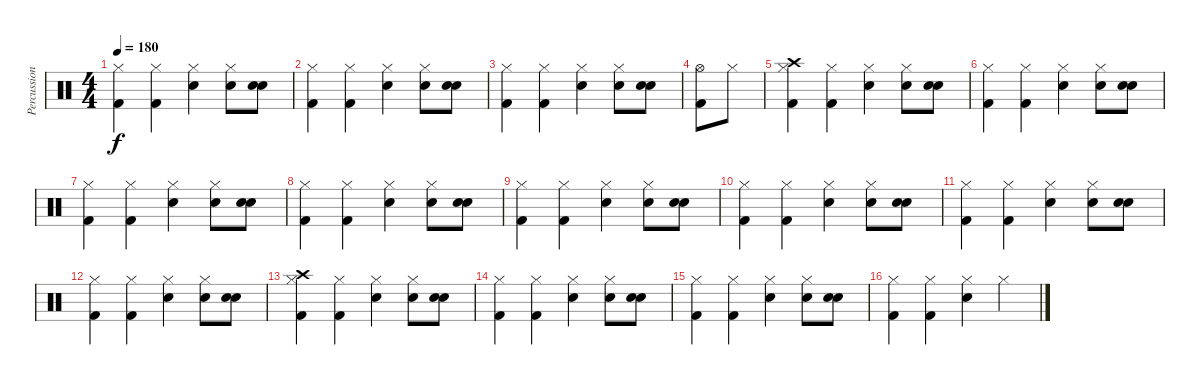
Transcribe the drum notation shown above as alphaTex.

\track ("Percussion" "Percussion") {instrument percussion}
\staff {score}
\articulation defaults
\ts (4 4)
\tempo 180
\clef neutral
\ks c
("Hi-Hat (closed)" "Kick (hit) 2").4{dy f} ("Hi-Hat (closed)" "Kick (hit) 2").4 ("Hi-Hat (closed)" "Electric Snare (hit)").4 ("Hi-Hat (closed)" "Snare (hit)").8 ("Snare (hit)" "Electric Snare (hit)").8 |
("Hi-Hat (closed)" "Kick (hit) 2").4 ("Hi-Hat (closed)" "Kick (hit) 2").4 ("Hi-Hat (closed)" "Electric Snare (hit)").4 ("Hi-Hat (closed)" "Snare (hit)").8 ("Snare (hit)" "Electric Snare (hit)").8 |
("Hi-Hat (closed)" "Kick (hit) 2").4 ("Hi-Hat (closed)" "Kick (hit) 2").4 ("Hi-Hat (closed)" "Electric Snare (hit)").4 ("Hi-Hat (closed)" "Snare (hit)").8 ("Snare (hit)" "Electric Snare (hit)").8 |
("Hi-Hat (open)" "Kick (hit) 2").8 "Hi-Hat (closed)".8 |
("Crash high (hit)" "Hi-Hat (closed)" "Kick (hit) 2").4 ("Hi-Hat (closed)" "Kick (hit) 2").4 ("Hi-Hat (closed)" "Electric Snare (hit)").4 ("Hi-Hat (closed)" "Snare (hit)").8 ("Snare (hit)" "Electric Snare (hit)").8 |
("Hi-Hat (closed)" "Kick (hit) 2").4 ("Hi-Hat (closed)" "Kick (hit) 2").4 ("Hi-Hat (closed)" "Electric Snare (hit)").4 ("Hi-Hat (closed)" "Snare (hit)").8 ("Snare (hit)" "Electric Snare (hit)").8 |
("Hi-Hat (closed)" "Kick (hit) 2").4 ("Hi-Hat (closed)" "Kick (hit) 2").4 ("Hi-Hat (closed)" "Electric Snare (hit)").4 ("Hi-Hat (closed)" "Snare (hit)").8 ("Snare (hit)" "Electric Snare (hit)").8 |
("Hi-Hat (closed)" "Kick (hit) 2").4 ("Hi-Hat (closed)" "Kick (hit) 2").4 ("Hi-Hat (closed)" "Electric Snare (hit)").4 ("Hi-Hat (closed)" "Snare (hit)").8 ("Snare (hit)" "Electric Snare (hit)").8 |
("Hi-Hat (closed)" "Kick (hit) 2").4 ("Hi-Hat (closed)" "Kick (hit) 2").4 ("Hi-Hat (closed)" "Electric Snare (hit)").4 ("Hi-Hat (closed)" "Snare (hit)").8 ("Snare (hit)" "Electric Snare (hit)").8 |
("Hi-Hat (closed)" "Kick (hit) 2").4 ("Hi-Hat (closed)" "Kick (hit) 2").4 ("Hi-Hat (closed)" "Electric Snare (hit)").4 ("Hi-Hat (closed)" "Snare (hit)").8 ("Snare (hit)" "Electric Snare (hit)").8 |
("Hi-Hat (closed)" "Kick (hit) 2").4 ("Hi-Hat (closed)" "Kick (hit) 2").4 ("Hi-Hat (closed)" "Electric Snare (hit)").4 ("Hi-Hat (closed)" "Snare (hit)").8 ("Snare (hit)" "Electric Snare (hit)").8 |
("Hi-Hat (closed)" "Kick (hit) 2").4 ("Hi-Hat (closed)" "Kick (hit) 2").4 ("Hi-Hat (closed)" "Electric Snare (hit)").4 ("Hi-Hat (closed)" "Snare (hit)").8 ("Snare (hit)" "Electric Snare (hit)").8 |
("Crash high (hit)" "Hi-Hat (closed)" "Kick (hit) 2").4 ("Hi-Hat (closed)" "Kick (hit) 2").4 ("Hi-Hat (closed)" "Electric Snare (hit)").4 ("Hi-Hat (closed)" "Snare (hit)").8 ("Snare (hit)" "Electric Snare (hit)").8 |
("Hi-Hat (closed)" "Kick (hit) 2").4 ("Hi-Hat (closed)" "Kick (hit) 2").4 ("Hi-Hat (closed)" "Electric Snare (hit)").4 ("Hi-Hat (closed)" "Snare (hit)").8 ("Snare (hit)" "Electric Snare (hit)").8 |
("Hi-Hat (closed)" "Kick (hit) 2").4 ("Hi-Hat (closed)" "Kick (hit) 2").4 ("Hi-Hat (closed)" "Electric Snare (hit)").4 ("Hi-Hat (closed)" "Snare (hit)").8 ("Snare (hit)" "Electric Snare (hit)").8 |
("Hi-Hat (closed)" "Kick (hit) 2").4 ("Hi-Hat (closed)" "Kick (hit) 2").4 ("Hi-Hat (closed)" "Electric Snare (hit)").4 "Hi-Hat (closed)".4
